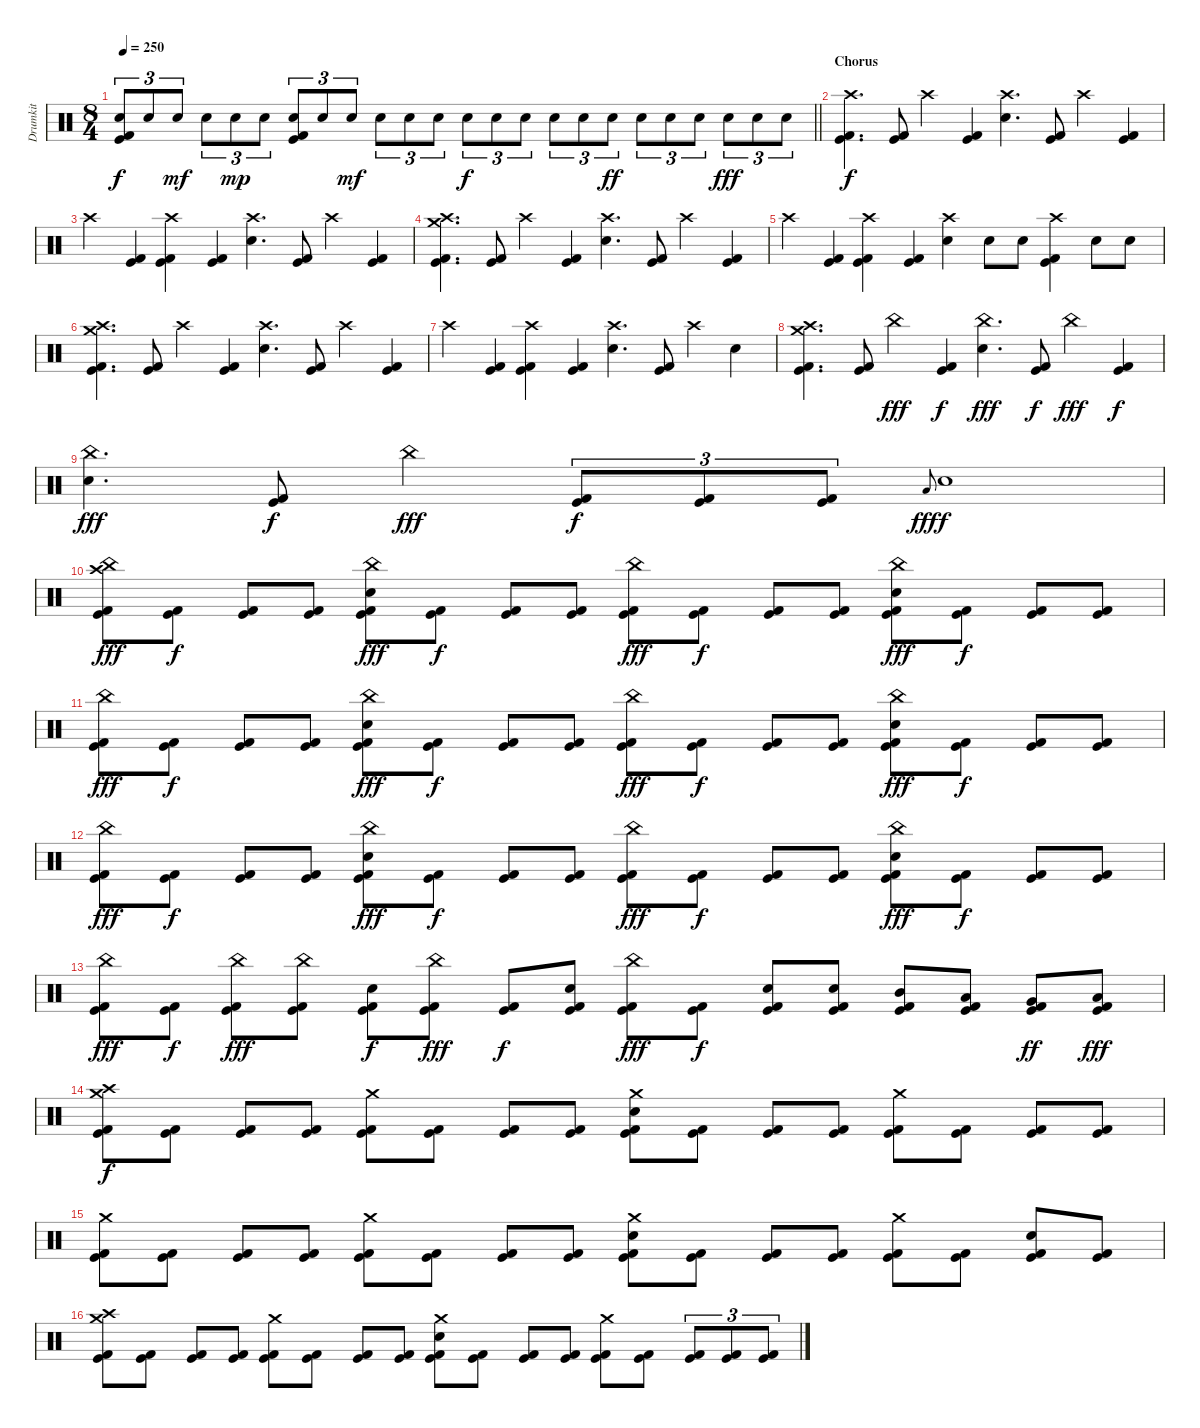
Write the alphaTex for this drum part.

\track ("Drumkit" "Drumkit") {instrument percussion}
\staff {score}
\articulation defaults
\ts (8 4)
\tempo 250
\clef neutral
\barLineRight lightlight
\ks c
("Electric Snare (hit)" "Kick (hit)" "Kick (hit) 2").8{tu (3 2) dy f} "Electric Snare (hit)".8{tu (3 2)} "Electric Snare (hit)".8{tu (3 2) dy mf} "Electric Snare (hit)".8{tu (3 2)} "Electric Snare (hit)".8{tu (3 2) dy mp} "Electric Snare (hit)".8{tu (3 2)} ("Electric Snare (hit)" "Kick (hit)" "Kick (hit) 2").8{tu (3 2)} "Electric Snare (hit)".8{tu (3 2)} "Electric Snare (hit)".8{tu (3 2) dy mf} "Electric Snare (hit)".8{tu (3 2)} "Electric Snare (hit)".8{tu (3 2)} "Electric Snare (hit)".8{tu (3 2)} "Electric Snare (hit)".8{tu (3 2) dy f} "Electric Snare (hit)".8{tu (3 2)} "Electric Snare (hit)".8{tu (3 2)} "Electric Snare (hit)".8{tu (3 2)} "Electric Snare (hit)".8{tu (3 2)} "Electric Snare (hit)".8{tu (3 2) dy ff} "Electric Snare (hit)".8{tu (3 2)} "Electric Snare (hit)".8{tu (3 2)} "Electric Snare (hit)".8{tu (3 2)} "Electric Snare (hit)".8{tu (3 2) dy fff} "Electric Snare (hit)".8{tu (3 2)} "Electric Snare (hit)".8{tu (3 2)} |
\section ("" "Chorus")
("Crash high (hit)" "Kick (hit)" "Kick (hit) 2").4{d dy f} ("Kick (hit)" "Kick (hit) 2").8 "Crash high (hit)".4 ("Kick (hit)" "Kick (hit) 2").4 ("Crash high (hit)" "Electric Snare (hit)").4{d} ("Kick (hit)" "Kick (hit) 2").8 "Crash high (hit)".4 ("Kick (hit)" "Kick (hit) 2").4 |
"Crash high (hit)".4 ("Kick (hit)" "Kick (hit) 2").4 ("Crash high (hit)" "Kick (hit)" "Kick (hit) 2").4 ("Kick (hit)" "Kick (hit) 2").4 ("Crash high (hit)" "Electric Snare (hit)").4{d} ("Kick (hit)" "Kick (hit) 2").8 "Crash high (hit)".4 ("Kick (hit)" "Kick (hit) 2").4 |
("Crash high (hit)" "Crash medium (hit)" "Kick (hit)" "Kick (hit) 2").4{d} ("Kick (hit)" "Kick (hit) 2").8 "Crash high (hit)".4 ("Kick (hit)" "Kick (hit) 2").4 ("Crash high (hit)" "Electric Snare (hit)").4{d} ("Kick (hit)" "Kick (hit) 2").8 "Crash high (hit)".4 ("Kick (hit)" "Kick (hit) 2").4 |
"Crash high (hit)".4 ("Kick (hit)" "Kick (hit) 2").4 ("Crash high (hit)" "Kick (hit)" "Kick (hit) 2").4 ("Kick (hit)" "Kick (hit) 2").4 ("Crash high (hit)" "Electric Snare (hit)").4 "Electric Snare (hit)".8 "Electric Snare (hit)".8 ("Crash high (hit)" "Kick (hit)" "Kick (hit) 2").4 "Electric Snare (hit)".8 "Electric Snare (hit)".8 |
("Crash high (hit)" "Crash medium (hit)" "Kick (hit)" "Kick (hit) 2").4{d} ("Kick (hit)" "Kick (hit) 2").8 "Crash high (hit)".4 ("Kick (hit)" "Kick (hit) 2").4 ("Crash high (hit)" "Electric Snare (hit)").4{d} ("Kick (hit)" "Kick (hit) 2").8 "Crash high (hit)".4 ("Kick (hit)" "Kick (hit) 2").4 |
"Crash high (hit)".4 ("Kick (hit)" "Kick (hit) 2").4 ("Crash high (hit)" "Kick (hit)" "Kick (hit) 2").4 ("Kick (hit)" "Kick (hit) 2").4 ("Crash high (hit)" "Electric Snare (hit)").4{d} ("Kick (hit)" "Kick (hit) 2").8 "Crash high (hit)".4 "Electric Snare (hit)".4 |
("Crash high (hit)" "Crash medium (hit)" "Kick (hit)" "Kick (hit) 2").4{d} ("Kick (hit)" "Kick (hit) 2").8 "China (hit)".4{dy fff} ("Kick (hit)" "Kick (hit) 2").4{dy f} ("China (hit)" "Electric Snare (hit)").4{d dy fff} ("Kick (hit)" "Kick (hit) 2").8{dy f} "China (hit)".4{dy fff} ("Kick (hit)" "Kick (hit) 2").4{dy f} |
("China (hit)" "Electric Snare (hit)").4{d dy fff} ("Kick (hit)" "Kick (hit) 2").8{dy f} "China (hit)".4{dy fff} ("Kick (hit)" "Kick (hit) 2").8{tu (3 2) dy f} ("Kick (hit)" "Kick (hit) 2").8{tu (3 2)} ("Kick (hit)" "Kick (hit) 2").8{tu (3 2)} "Low Floor Tom (hit)".8{gr onbeat dy fff} "Electric Snare (hit)".1{dy f} |
("Crash high (hit)" "China (hit)" "Kick (hit)" "Kick (hit) 2").8{dy fff} ("Kick (hit)" "Kick (hit) 2").8{dy f} ("Kick (hit)" "Kick (hit) 2").8 ("Kick (hit)" "Kick (hit) 2").8 ("China (hit)" "Electric Snare (hit)" "Kick (hit)" "Kick (hit) 2").8{dy fff} ("Kick (hit)" "Kick (hit) 2").8{dy f} ("Kick (hit)" "Kick (hit) 2").8 ("Kick (hit)" "Kick (hit) 2").8 ("China (hit)" "Kick (hit)" "Kick (hit) 2").8{dy fff} ("Kick (hit)" "Kick (hit) 2").8{dy f} ("Kick (hit)" "Kick (hit) 2").8 ("Kick (hit)" "Kick (hit) 2").8 ("China (hit)" "Electric Snare (hit)" "Kick (hit)" "Kick (hit) 2").8{dy fff} ("Kick (hit)" "Kick (hit) 2").8{dy f} ("Kick (hit)" "Kick (hit) 2").8 ("Kick (hit)" "Kick (hit) 2").8 |
("China (hit)" "Kick (hit)" "Kick (hit) 2").8{dy fff} ("Kick (hit)" "Kick (hit) 2").8{dy f} ("Kick (hit)" "Kick (hit) 2").8 ("Kick (hit)" "Kick (hit) 2").8 ("China (hit)" "Electric Snare (hit)" "Kick (hit)" "Kick (hit) 2").8{dy fff} ("Kick (hit)" "Kick (hit) 2").8{dy f} ("Kick (hit)" "Kick (hit) 2").8 ("Kick (hit)" "Kick (hit) 2").8 ("China (hit)" "Kick (hit)" "Kick (hit) 2").8{dy fff} ("Kick (hit)" "Kick (hit) 2").8{dy f} ("Kick (hit)" "Kick (hit) 2").8 ("Kick (hit)" "Kick (hit) 2").8 ("China (hit)" "Electric Snare (hit)" "Kick (hit)" "Kick (hit) 2").8{dy fff} ("Kick (hit)" "Kick (hit) 2").8{dy f} ("Kick (hit)" "Kick (hit) 2").8 ("Kick (hit)" "Kick (hit) 2").8 |
("China (hit)" "Kick (hit)" "Kick (hit) 2").8{dy fff} ("Kick (hit)" "Kick (hit) 2").8{dy f} ("Kick (hit)" "Kick (hit) 2").8 ("Kick (hit)" "Kick (hit) 2").8 ("China (hit)" "Electric Snare (hit)" "Kick (hit)" "Kick (hit) 2").8{dy fff} ("Kick (hit)" "Kick (hit) 2").8{dy f} ("Kick (hit)" "Kick (hit) 2").8 ("Kick (hit)" "Kick (hit) 2").8 ("China (hit)" "Kick (hit)" "Kick (hit) 2").8{dy fff} ("Kick (hit)" "Kick (hit) 2").8{dy f} ("Kick (hit)" "Kick (hit) 2").8 ("Kick (hit)" "Kick (hit) 2").8 ("China (hit)" "Electric Snare (hit)" "Kick (hit)" "Kick (hit) 2").8{dy fff} ("Kick (hit)" "Kick (hit) 2").8{dy f} ("Kick (hit)" "Kick (hit) 2").8 ("Kick (hit)" "Kick (hit) 2").8 |
("China (hit)" "Kick (hit)" "Kick (hit) 2").8{dy fff} ("Kick (hit)" "Kick (hit) 2").8{dy f} ("China (hit)" "Kick (hit)" "Kick (hit) 2").8{dy fff} ("China (hit)" "Kick (hit)" "Kick (hit) 2").8 ("Electric Snare (hit)" "Kick (hit)" "Kick (hit) 2").8{dy f} ("China (hit)" "Kick (hit)" "Kick (hit) 2").8{dy fff} ("Kick (hit)" "Kick (hit) 2").8{dy f} ("Electric Snare (hit)" "Kick (hit)" "Kick (hit) 2").8 ("China (hit)" "Kick (hit)" "Kick (hit) 2").8{dy fff} ("Kick (hit)" "Kick (hit) 2").8{dy f} ("Electric Snare (hit)" "Kick (hit)" "Kick (hit) 2").8 ("Electric Snare (hit)" "Kick (hit)" "Kick (hit) 2").8 ("Mid Tom (hit)" "Kick (hit)" "Kick (hit) 2").8 ("Low Tom (hit)" "Kick (hit)" "Kick (hit) 2").8 ("Very Low Tom (hit)" "Kick (hit)" "Kick (hit) 2").8{dy ff} ("Low Floor Tom (hit)" "Kick (hit)" "Kick (hit) 2").8{dy fff} |
("Crash high (hit)" "Crash medium (hit)" "Kick (hit)" "Kick (hit) 2").8{dy f} ("Kick (hit)" "Kick (hit) 2").8 ("Kick (hit)" "Kick (hit) 2").8 ("Kick (hit)" "Kick (hit) 2").8 ("Crash medium (hit)" "Kick (hit)" "Kick (hit) 2").8 ("Kick (hit)" "Kick (hit) 2").8 ("Kick (hit)" "Kick (hit) 2").8 ("Kick (hit)" "Kick (hit) 2").8 ("Crash medium (hit)" "Electric Snare (hit)" "Kick (hit)" "Kick (hit) 2").8 ("Kick (hit)" "Kick (hit) 2").8 ("Kick (hit)" "Kick (hit) 2").8 ("Kick (hit)" "Kick (hit) 2").8 ("Crash medium (hit)" "Kick (hit)" "Kick (hit) 2").8 ("Kick (hit)" "Kick (hit) 2").8 ("Kick (hit)" "Kick (hit) 2").8 ("Kick (hit)" "Kick (hit) 2").8 |
("Crash medium (hit)" "Kick (hit)" "Kick (hit) 2").8 ("Kick (hit)" "Kick (hit) 2").8 ("Kick (hit)" "Kick (hit) 2").8 ("Kick (hit)" "Kick (hit) 2").8 ("Crash medium (hit)" "Kick (hit)" "Kick (hit) 2").8 ("Kick (hit)" "Kick (hit) 2").8 ("Kick (hit)" "Kick (hit) 2").8 ("Kick (hit)" "Kick (hit) 2").8 ("Crash medium (hit)" "Electric Snare (hit)" "Kick (hit)" "Kick (hit) 2").8 ("Kick (hit)" "Kick (hit) 2").8 ("Kick (hit)" "Kick (hit) 2").8 ("Kick (hit)" "Kick (hit) 2").8 ("Crash medium (hit)" "Kick (hit)" "Kick (hit) 2").8 ("Kick (hit)" "Kick (hit) 2").8 ("Electric Snare (hit)" "Kick (hit)" "Kick (hit) 2").8 ("Kick (hit)" "Kick (hit) 2").8 |
("Crash high (hit)" "Crash medium (hit)" "Kick (hit)" "Kick (hit) 2").8 ("Kick (hit)" "Kick (hit) 2").8 ("Kick (hit)" "Kick (hit) 2").8 ("Kick (hit)" "Kick (hit) 2").8 ("Crash medium (hit)" "Kick (hit)" "Kick (hit) 2").8 ("Kick (hit)" "Kick (hit) 2").8 ("Kick (hit)" "Kick (hit) 2").8 ("Kick (hit)" "Kick (hit) 2").8 ("Crash medium (hit)" "Electric Snare (hit)" "Kick (hit)" "Kick (hit) 2").8 ("Kick (hit)" "Kick (hit) 2").8 ("Kick (hit)" "Kick (hit) 2").8 ("Kick (hit)" "Kick (hit) 2").8 ("Crash medium (hit)" "Kick (hit)" "Kick (hit) 2").8 ("Kick (hit)" "Kick (hit) 2").8 ("Kick (hit)" "Kick (hit) 2").8{tu (3 2)} ("Kick (hit)" "Kick (hit) 2").8{tu (3 2)} ("Kick (hit)" "Kick (hit) 2").8{tu (3 2)}
